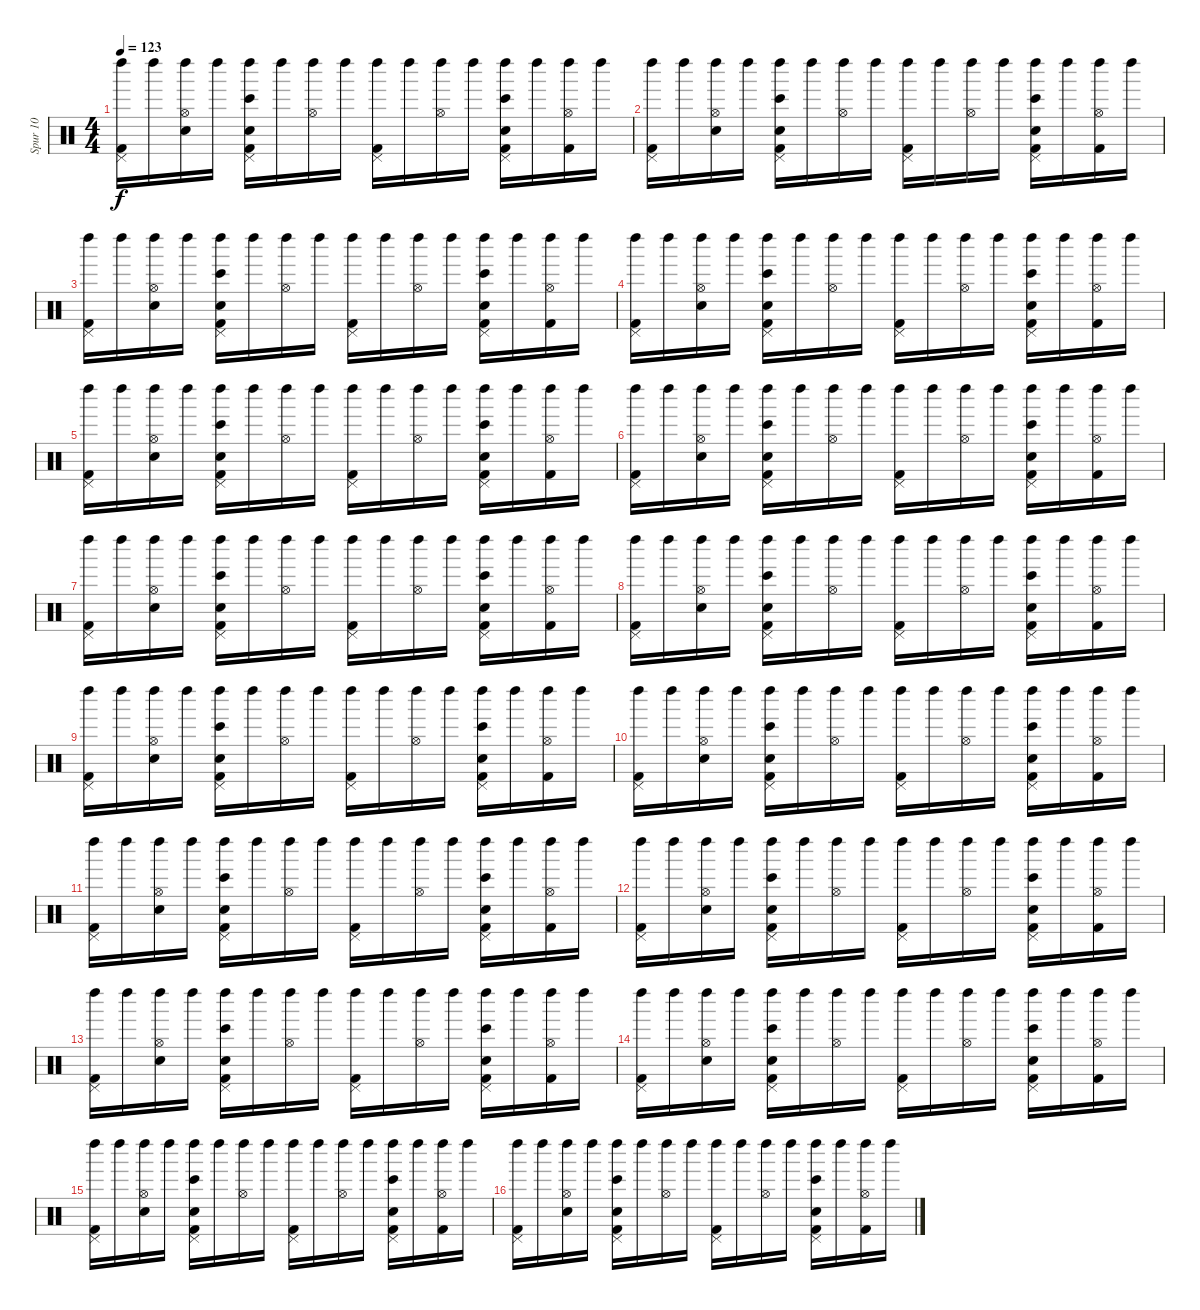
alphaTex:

\track ("Spur 10" "Spur 10") {instrument percussion}
\staff {score}
\articulation defaults
\ts (4 4)
\tempo 123
\clef neutral
\ks c
("Left Maraca (hit)" "Kick (hit) 2" "Pedal Hi-Hat (hit)").16{dy f} "Left Maraca (hit)".16 ("Left Maraca (hit)" "Electric Snare (hit)" "Hi-Hat (open)").16 "Left Maraca (hit)".16 ("Left Maraca (hit)" "Snare (hit) 2" "Bongo High (hit)" "Kick (hit) 2" "Pedal Hi-Hat (hit)").16 "Left Maraca (hit)".16 ("Left Maraca (hit)" "Hi-Hat (open)").16 "Left Maraca (hit)".16 ("Kick (hit) 2" "Left Maraca (hit)" "Pedal Hi-Hat (hit)").16 "Left Maraca (hit)".16 ("Left Maraca (hit)" "Hi-Hat (open)").16 "Left Maraca (hit)".16 ("Bongo High (hit)" "Snare (hit) 2" "Left Maraca (hit)" "Kick (hit) 2" "Pedal Hi-Hat (hit)").16 "Left Maraca (hit)".16 ("Kick (hit) 2" "Left Maraca (hit)" "Hi-Hat (open)").16 "Left Maraca (hit)".16 |
("Kick (hit) 2" "Left Maraca (hit)" "Pedal Hi-Hat (hit)").16 "Left Maraca (hit)".16 ("Left Maraca (hit)" "Electric Snare (hit)" "Hi-Hat (open)").16 "Left Maraca (hit)".16 ("Left Maraca (hit)" "Kick (hit) 2" "Snare (hit) 2" "Bongo High (hit)" "Pedal Hi-Hat (hit)").16 "Left Maraca (hit)".16 ("Left Maraca (hit)" "Hi-Hat (open)").16 "Left Maraca (hit)".16 ("Kick (hit) 2" "Left Maraca (hit)" "Pedal Hi-Hat (hit)").16 "Left Maraca (hit)".16 ("Left Maraca (hit)" "Hi-Hat (open)").16 "Left Maraca (hit)".16 ("Kick (hit) 2" "Left Maraca (hit)" "Bongo High (hit)" "Snare (hit) 2" "Pedal Hi-Hat (hit)").16 "Left Maraca (hit)".16 ("Kick (hit) 2" "Left Maraca (hit)" "Hi-Hat (open)").16 "Left Maraca (hit)".16 |
("Left Maraca (hit)" "Kick (hit) 2" "Pedal Hi-Hat (hit)").16 "Left Maraca (hit)".16 ("Electric Snare (hit)" "Left Maraca (hit)" "Hi-Hat (open)").16 "Left Maraca (hit)".16 ("Snare (hit) 2" "Bongo High (hit)" "Kick (hit) 2" "Left Maraca (hit)" "Pedal Hi-Hat (hit)").16 "Left Maraca (hit)".16 ("Left Maraca (hit)" "Hi-Hat (open)").16 "Left Maraca (hit)".16 ("Left Maraca (hit)" "Kick (hit) 2" "Pedal Hi-Hat (hit)").16 "Left Maraca (hit)".16 ("Left Maraca (hit)" "Hi-Hat (open)").16 "Left Maraca (hit)".16 ("Bongo High (hit)" "Kick (hit) 2" "Left Maraca (hit)" "Snare (hit) 2" "Pedal Hi-Hat (hit)").16 "Left Maraca (hit)".16 ("Left Maraca (hit)" "Kick (hit) 2" "Hi-Hat (open)").16 "Left Maraca (hit)".16 |
("Left Maraca (hit)" "Kick (hit) 2" "Pedal Hi-Hat (hit)").16 "Left Maraca (hit)".16 ("Left Maraca (hit)" "Electric Snare (hit)" "Hi-Hat (open)").16 "Left Maraca (hit)".16 ("Kick (hit) 2" "Left Maraca (hit)" "Bongo High (hit)" "Snare (hit) 2" "Pedal Hi-Hat (hit)").16 "Left Maraca (hit)".16 ("Left Maraca (hit)" "Hi-Hat (open)").16 "Left Maraca (hit)".16 ("Kick (hit) 2" "Left Maraca (hit)" "Pedal Hi-Hat (hit)").16 "Left Maraca (hit)".16 ("Left Maraca (hit)" "Hi-Hat (open)").16 "Left Maraca (hit)".16 ("Bongo High (hit)" "Kick (hit) 2" "Snare (hit) 2" "Left Maraca (hit)" "Pedal Hi-Hat (hit)").16 "Left Maraca (hit)".16 ("Left Maraca (hit)" "Kick (hit) 2" "Hi-Hat (open)").16 "Left Maraca (hit)".16 |
("Left Maraca (hit)" "Kick (hit) 2" "Pedal Hi-Hat (hit)").16 "Left Maraca (hit)".16 ("Left Maraca (hit)" "Electric Snare (hit)" "Hi-Hat (open)").16 "Left Maraca (hit)".16 ("Kick (hit) 2" "Bongo High (hit)" "Snare (hit) 2" "Left Maraca (hit)" "Pedal Hi-Hat (hit)").16 "Left Maraca (hit)".16 ("Left Maraca (hit)" "Hi-Hat (open)").16 "Left Maraca (hit)".16 ("Kick (hit) 2" "Left Maraca (hit)" "Pedal Hi-Hat (hit)").16 "Left Maraca (hit)".16 ("Left Maraca (hit)" "Hi-Hat (open)").16 "Left Maraca (hit)".16 ("Kick (hit) 2" "Bongo High (hit)" "Snare (hit) 2" "Left Maraca (hit)" "Pedal Hi-Hat (hit)").16 "Left Maraca (hit)".16 ("Kick (hit) 2" "Left Maraca (hit)" "Hi-Hat (open)").16 "Left Maraca (hit)".16 |
("Kick (hit) 2" "Left Maraca (hit)" "Pedal Hi-Hat (hit)").16 "Left Maraca (hit)".16 ("Electric Snare (hit)" "Left Maraca (hit)" "Hi-Hat (open)").16 "Left Maraca (hit)".16 ("Left Maraca (hit)" "Snare (hit) 2" "Kick (hit) 2" "Bongo High (hit)" "Pedal Hi-Hat (hit)").16 "Left Maraca (hit)".16 ("Left Maraca (hit)" "Hi-Hat (open)").16 "Left Maraca (hit)".16 ("Kick (hit) 2" "Left Maraca (hit)" "Pedal Hi-Hat (hit)").16 "Left Maraca (hit)".16 ("Left Maraca (hit)" "Hi-Hat (open)").16 "Left Maraca (hit)".16 ("Snare (hit) 2" "Left Maraca (hit)" "Kick (hit) 2" "Bongo High (hit)" "Pedal Hi-Hat (hit)").16 "Left Maraca (hit)".16 ("Kick (hit) 2" "Left Maraca (hit)" "Hi-Hat (open)").16 "Left Maraca (hit)".16 |
("Left Maraca (hit)" "Kick (hit) 2" "Pedal Hi-Hat (hit)").16 "Left Maraca (hit)".16 ("Left Maraca (hit)" "Electric Snare (hit)" "Hi-Hat (open)").16 "Left Maraca (hit)".16 ("Kick (hit) 2" "Snare (hit) 2" "Bongo High (hit)" "Left Maraca (hit)" "Pedal Hi-Hat (hit)").16 "Left Maraca (hit)".16 ("Left Maraca (hit)" "Hi-Hat (open)").16 "Left Maraca (hit)".16 ("Kick (hit) 2" "Left Maraca (hit)" "Pedal Hi-Hat (hit)").16 "Left Maraca (hit)".16 ("Left Maraca (hit)" "Hi-Hat (open)").16 "Left Maraca (hit)".16 ("Left Maraca (hit)" "Kick (hit) 2" "Bongo High (hit)" "Snare (hit) 2" "Pedal Hi-Hat (hit)").16 "Left Maraca (hit)".16 ("Left Maraca (hit)" "Kick (hit) 2" "Hi-Hat (open)").16 "Left Maraca (hit)".16 |
("Left Maraca (hit)" "Kick (hit) 2" "Pedal Hi-Hat (hit)").16 "Left Maraca (hit)".16 ("Electric Snare (hit)" "Left Maraca (hit)" "Hi-Hat (open)").16 "Left Maraca (hit)".16 ("Snare (hit) 2" "Kick (hit) 2" "Bongo High (hit)" "Left Maraca (hit)" "Pedal Hi-Hat (hit)").16 "Left Maraca (hit)".16 ("Left Maraca (hit)" "Hi-Hat (open)").16 "Left Maraca (hit)".16 ("Kick (hit) 2" "Left Maraca (hit)" "Pedal Hi-Hat (hit)").16 "Left Maraca (hit)".16 ("Left Maraca (hit)" "Hi-Hat (open)").16 "Left Maraca (hit)".16 ("Bongo High (hit)" "Snare (hit) 2" "Kick (hit) 2" "Left Maraca (hit)" "Pedal Hi-Hat (hit)").16 "Left Maraca (hit)".16 ("Left Maraca (hit)" "Kick (hit) 2" "Hi-Hat (open)").16 "Left Maraca (hit)".16 |
("Left Maraca (hit)" "Kick (hit) 2" "Pedal Hi-Hat (hit)").16 "Left Maraca (hit)".16 ("Electric Snare (hit)" "Left Maraca (hit)" "Hi-Hat (open)").16 "Left Maraca (hit)".16 ("Snare (hit) 2" "Kick (hit) 2" "Bongo High (hit)" "Left Maraca (hit)" "Pedal Hi-Hat (hit)").16 "Left Maraca (hit)".16 ("Left Maraca (hit)" "Hi-Hat (open)").16 "Left Maraca (hit)".16 ("Left Maraca (hit)" "Kick (hit) 2" "Pedal Hi-Hat (hit)").16 "Left Maraca (hit)".16 ("Left Maraca (hit)" "Hi-Hat (open)").16 "Left Maraca (hit)".16 ("Left Maraca (hit)" "Snare (hit) 2" "Bongo High (hit)" "Kick (hit) 2" "Pedal Hi-Hat (hit)").16 "Left Maraca (hit)".16 ("Kick (hit) 2" "Left Maraca (hit)" "Hi-Hat (open)").16 "Left Maraca (hit)".16 |
("Left Maraca (hit)" "Kick (hit) 2" "Pedal Hi-Hat (hit)").16 "Left Maraca (hit)".16 ("Left Maraca (hit)" "Electric Snare (hit)" "Hi-Hat (open)").16 "Left Maraca (hit)".16 ("Kick (hit) 2" "Left Maraca (hit)" "Snare (hit) 2" "Bongo High (hit)" "Pedal Hi-Hat (hit)").16 "Left Maraca (hit)".16 ("Left Maraca (hit)" "Hi-Hat (open)").16 "Left Maraca (hit)".16 ("Kick (hit) 2" "Left Maraca (hit)" "Pedal Hi-Hat (hit)").16 "Left Maraca (hit)".16 ("Left Maraca (hit)" "Hi-Hat (open)").16 "Left Maraca (hit)".16 ("Kick (hit) 2" "Snare (hit) 2" "Bongo High (hit)" "Left Maraca (hit)" "Pedal Hi-Hat (hit)").16 "Left Maraca (hit)".16 ("Left Maraca (hit)" "Kick (hit) 2" "Hi-Hat (open)").16 "Left Maraca (hit)".16 |
("Left Maraca (hit)" "Kick (hit) 2" "Pedal Hi-Hat (hit)").16 "Left Maraca (hit)".16 ("Electric Snare (hit)" "Left Maraca (hit)" "Hi-Hat (open)").16 "Left Maraca (hit)".16 ("Bongo High (hit)" "Left Maraca (hit)" "Kick (hit) 2" "Snare (hit) 2" "Pedal Hi-Hat (hit)").16 "Left Maraca (hit)".16 ("Left Maraca (hit)" "Hi-Hat (open)").16 "Left Maraca (hit)".16 ("Kick (hit) 2" "Left Maraca (hit)" "Pedal Hi-Hat (hit)").16 "Left Maraca (hit)".16 ("Left Maraca (hit)" "Hi-Hat (open)").16 "Left Maraca (hit)".16 ("Left Maraca (hit)" "Snare (hit) 2" "Bongo High (hit)" "Kick (hit) 2" "Pedal Hi-Hat (hit)").16 "Left Maraca (hit)".16 ("Kick (hit) 2" "Left Maraca (hit)" "Hi-Hat (open)").16 "Left Maraca (hit)".16 |
("Kick (hit) 2" "Left Maraca (hit)" "Pedal Hi-Hat (hit)").16 "Left Maraca (hit)".16 ("Electric Snare (hit)" "Left Maraca (hit)" "Hi-Hat (open)").16 "Left Maraca (hit)".16 ("Bongo High (hit)" "Left Maraca (hit)" "Snare (hit) 2" "Kick (hit) 2" "Pedal Hi-Hat (hit)").16 "Left Maraca (hit)".16 ("Left Maraca (hit)" "Hi-Hat (open)").16 "Left Maraca (hit)".16 ("Kick (hit) 2" "Left Maraca (hit)" "Pedal Hi-Hat (hit)").16 "Left Maraca (hit)".16 ("Left Maraca (hit)" "Hi-Hat (open)").16 "Left Maraca (hit)".16 ("Kick (hit) 2" "Snare (hit) 2" "Bongo High (hit)" "Left Maraca (hit)" "Pedal Hi-Hat (hit)").16 "Left Maraca (hit)".16 ("Left Maraca (hit)" "Kick (hit) 2" "Hi-Hat (open)").16 "Left Maraca (hit)".16 |
("Left Maraca (hit)" "Kick (hit) 2" "Pedal Hi-Hat (hit)").16 "Left Maraca (hit)".16 ("Left Maraca (hit)" "Electric Snare (hit)" "Hi-Hat (open)").16 "Left Maraca (hit)".16 ("Snare (hit) 2" "Kick (hit) 2" "Bongo High (hit)" "Left Maraca (hit)" "Pedal Hi-Hat (hit)").16 "Left Maraca (hit)".16 ("Left Maraca (hit)" "Hi-Hat (open)").16 "Left Maraca (hit)".16 ("Left Maraca (hit)" "Kick (hit) 2" "Pedal Hi-Hat (hit)").16 "Left Maraca (hit)".16 ("Left Maraca (hit)" "Hi-Hat (open)").16 "Left Maraca (hit)".16 ("Snare (hit) 2" "Left Maraca (hit)" "Kick (hit) 2" "Bongo High (hit)" "Pedal Hi-Hat (hit)").16 "Left Maraca (hit)".16 ("Left Maraca (hit)" "Kick (hit) 2" "Hi-Hat (open)").16 "Left Maraca (hit)".16 |
("Kick (hit) 2" "Left Maraca (hit)" "Pedal Hi-Hat (hit)").16 "Left Maraca (hit)".16 ("Electric Snare (hit)" "Left Maraca (hit)" "Hi-Hat (open)").16 "Left Maraca (hit)".16 ("Kick (hit) 2" "Left Maraca (hit)" "Snare (hit) 2" "Bongo High (hit)" "Pedal Hi-Hat (hit)").16 "Left Maraca (hit)".16 ("Left Maraca (hit)" "Hi-Hat (open)").16 "Left Maraca (hit)".16 ("Left Maraca (hit)" "Kick (hit) 2" "Pedal Hi-Hat (hit)").16 "Left Maraca (hit)".16 ("Left Maraca (hit)" "Hi-Hat (open)").16 "Left Maraca (hit)".16 ("Left Maraca (hit)" "Bongo High (hit)" "Snare (hit) 2" "Kick (hit) 2" "Pedal Hi-Hat (hit)").16 "Left Maraca (hit)".16 ("Left Maraca (hit)" "Kick (hit) 2" "Hi-Hat (open)").16 "Left Maraca (hit)".16 |
("Kick (hit) 2" "Left Maraca (hit)" "Pedal Hi-Hat (hit)").16 "Left Maraca (hit)".16 ("Electric Snare (hit)" "Left Maraca (hit)" "Hi-Hat (open)").16 "Left Maraca (hit)".16 ("Kick (hit) 2" "Left Maraca (hit)" "Snare (hit) 2" "Bongo High (hit)" "Pedal Hi-Hat (hit)").16 "Left Maraca (hit)".16 ("Left Maraca (hit)" "Hi-Hat (open)").16 "Left Maraca (hit)".16 ("Kick (hit) 2" "Left Maraca (hit)" "Pedal Hi-Hat (hit)").16 "Left Maraca (hit)".16 ("Left Maraca (hit)" "Hi-Hat (open)").16 "Left Maraca (hit)".16 ("Left Maraca (hit)" "Snare (hit) 2" "Kick (hit) 2" "Bongo High (hit)" "Pedal Hi-Hat (hit)").16 "Left Maraca (hit)".16 ("Kick (hit) 2" "Left Maraca (hit)" "Hi-Hat (open)").16 "Left Maraca (hit)".16 |
("Kick (hit) 2" "Left Maraca (hit)" "Pedal Hi-Hat (hit)").16 "Left Maraca (hit)".16 ("Electric Snare (hit)" "Left Maraca (hit)" "Hi-Hat (open)").16 "Left Maraca (hit)".16 ("Left Maraca (hit)" "Bongo High (hit)" "Kick (hit) 2" "Snare (hit) 2" "Pedal Hi-Hat (hit)").16 "Left Maraca (hit)".16 ("Left Maraca (hit)" "Hi-Hat (open)").16 "Left Maraca (hit)".16 ("Left Maraca (hit)" "Kick (hit) 2" "Pedal Hi-Hat (hit)").16 "Left Maraca (hit)".16 ("Left Maraca (hit)" "Hi-Hat (open)").16 "Left Maraca (hit)".16 ("Snare (hit) 2" "Bongo High (hit)" "Kick (hit) 2" "Left Maraca (hit)" "Pedal Hi-Hat (hit)").16 "Left Maraca (hit)".16 ("Kick (hit) 2" "Left Maraca (hit)" "Hi-Hat (open)").16 "Left Maraca (hit)".16
